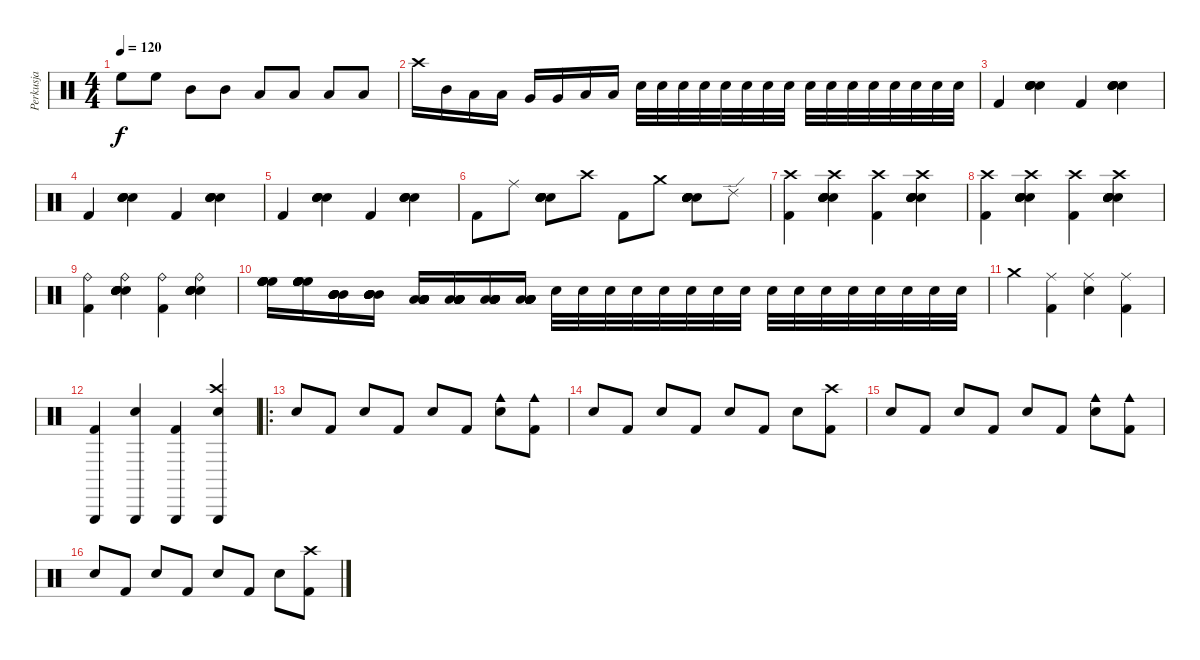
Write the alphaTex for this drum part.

\track ("Perkusja" "Perkusja") {instrument percussion}
\staff {score}
\articulation defaults
\ts (4 4)
\tempo 120
\clef neutral
\ks c "High Floor Tom (hit)".8{dy f} "High Floor Tom (hit)".8 "Mid Tom (hit)".8 "Mid Tom (hit)".8 "Low Tom (hit)".8 "Low Tom (hit)".8 "Low Floor Tom (hit)".8 "Low Floor Tom (hit)".8
|
"Crash high (hit)".16 "Mid Tom (hit)".16 "Low Tom (hit)".16 "Low Tom (hit)".16 "Very Low Tom (hit)".16 "Very Low Tom (hit)".16 "Low Floor Tom (hit)".16 "Low Floor Tom (hit)".16 "Snare (hit) 2".32 "Snare (hit) 2".32 "Snare (hit) 2".32 "Snare (hit) 2".32 "Snare (hit) 2".32 "Snare (hit) 2".32 "Snare (hit) 2".32 "Snare (hit) 2".32 "Snare (hit) 2".32 "Snare (hit) 2".32 "Snare (hit) 2".32 "Snare (hit) 2".32 "Snare (hit) 2".32 "Snare (hit) 2".32 "Snare (hit) 2".32 "Snare (hit) 2".32 |
"Kick (hit) 2".4 ("Snare (hit) 2" "Snare (hit) 2" "Snare (hit) 2" "Snare (hit) 2").4 "Kick (hit) 2".4 ("Snare (hit) 2" "Snare (hit) 2" "Snare (hit) 2" "Snare (hit) 2").4 |
"Kick (hit) 2".4 ("Snare (hit) 2" "Snare (hit) 2" "Snare (hit) 2" "Snare (hit) 2").4 "Kick (hit) 2".4 ("Snare (hit) 2" "Snare (hit) 2" "Snare (hit) 2" "Snare (hit) 2").4 |
"Kick (hit) 2".4 ("Snare (hit) 2" "Snare (hit) 2" "Snare (hit) 2" "Snare (hit) 2").4 "Kick (hit) 2".4 ("Snare (hit) 2" "Snare (hit) 2" "Snare (hit) 2" "Snare (hit) 2").4 |
"Kick (hit) 2".8 "Ride (middle)".8 ("Snare (hit) 2" "Snare (hit) 2" "Snare (hit) 2" "Snare (hit) 2" "Snare (hit) 2" "Snare (hit) 2").8 "Crash high (hit)".8 "Kick (hit) 2".8 "Crash medium (hit)".8 ("Snare (hit) 2" "Snare (hit) 2" "Snare (hit) 2" "Snare (hit) 2" "Snare (hit) 2" "Snare (hit) 2").8 "Ride (edge) 2".8 |
("Crash high (hit)" "Kick (hit) 2").4 ("Snare (hit) 2" "Snare (hit) 2" "Crash high (hit)" "Snare (hit) 2" "Snare (hit) 2" "Snare (hit) 2").4 ("Crash high (hit)" "Kick (hit) 2").4 ("Snare (hit) 2" "Snare (hit) 2" "Crash high (hit)" "Snare (hit) 2" "Snare (hit) 2" "Snare (hit) 2").4 |
("Crash high (hit)" "Kick (hit) 2").4 ("Snare (hit) 2" "Snare (hit) 2" "Crash high (hit)" "Snare (hit) 2" "Snare (hit) 2" "Snare (hit) 2").4 ("Crash high (hit)" "Kick (hit) 2").4 ("Snare (hit) 2" "Snare (hit) 2" "Crash high (hit)" "Snare (hit) 2" "Snare (hit) 2" "Snare (hit) 2").4 |
("Ride (bell)" "Kick (hit) 2").4 ("Snare (hit) 2" "Snare (hit) 2" "Ride (bell)" "Snare (hit) 2" "Snare (hit) 2" "Snare (hit) 2").4 ("Ride (bell)" "Kick (hit) 2").4 ("Snare (hit) 2" "Snare (hit) 2" "Ride (bell)" "Snare (hit) 2" "Snare (hit) 2" "Snare (hit) 2").4 |
("High Floor Tom (hit)" "High Floor Tom (hit)" "High Floor Tom (hit)" "High Floor Tom (hit)" "High Floor Tom (hit)" "High Floor Tom (hit)").16 ("High Floor Tom (hit)" "High Floor Tom (hit)" "High Floor Tom (hit)" "High Floor Tom (hit)" "High Floor Tom (hit)" "High Floor Tom (hit)").16 ("Mid Tom (hit)" "Mid Tom (hit)" "Mid Tom (hit)" "Mid Tom (hit)" "Mid Tom (hit)" "Mid Tom (hit)").16 ("Mid Tom (hit)" "Mid Tom (hit)" "Mid Tom (hit)" "Mid Tom (hit)" "Mid Tom (hit)" "Mid Tom (hit)").16 ("Low Tom (hit)" "Low Tom (hit)" "Low Tom (hit)" "Low Tom (hit)" "Low Tom (hit)" "Low Tom (hit)").16 ("Low Tom (hit)" "Low Tom (hit)" "Low Tom (hit)" "Low Tom (hit)" "Low Tom (hit)" "Low Tom (hit)").16 ("Low Floor Tom (hit)" "Low Floor Tom (hit)" "Low Floor Tom (hit)" "Low Floor Tom (hit)" "Low Floor Tom (hit)" "Low Floor Tom (hit)").16 ("Low Floor Tom (hit)" "Low Floor Tom (hit)" "Low Floor Tom (hit)" "Low Floor Tom (hit)" "Low Floor Tom (hit)" "Low Floor Tom (hit)").16 "Snare (hit) 2".32 "Snare (hit) 2".32 "Snare (hit) 2".32 "Snare (hit) 2".32 "Snare (hit) 2".32 "Snare (hit) 2".32 "Snare (hit) 2".32 "Snare (hit) 2".32 "Snare (hit) 2".32 "Snare (hit) 2".32 "Snare (hit) 2".32 "Snare (hit) 2".32 "Snare (hit) 2".32 "Snare (hit) 2".32 "Snare (hit) 2".32 "Snare (hit) 2".32 |
"Crash medium (hit)".4 ("Ride (middle)" "Kick (hit) 2").4 ("Ride (middle)" "Snare (hit) 2").4 ("Ride (middle)" "Kick (hit) 2").4 |
("Triangle (hit)" "Kick (hit) 2").4 ("Triangle (hit)" "Snare (hit) 2").4 ("Triangle (hit)" "Kick (hit) 2").4 ("Crash high (hit)" "Triangle (hit)" "Snare (hit) 2").4 |
\ro "Snare (hit) 2".8 "Kick (hit) 2".8 "Snare (hit) 2".8 "Kick (hit) 2".8 "Snare (hit) 2".8 "Kick (hit) 2".8
("Cowbell medium (hit)" "Snare (hit) 2").8 ("Cowbell medium (hit)" "Kick (hit) 2").8 |
"Snare (hit) 2".8 "Kick (hit) 2".8 "Snare (hit) 2".8 "Kick (hit) 2".8 "Snare (hit) 2".8 "Kick (hit) 2".8 "Snare (hit) 2".8 ("Crash high (hit)" "Kick (hit) 2").8 |
"Snare (hit) 2".8 "Kick (hit) 2".8 "Snare (hit) 2".8 "Kick (hit) 2".8 "Snare (hit) 2".8 "Kick (hit) 2".8 ("Cowbell medium (hit)" "Snare (hit) 2").8 ("Cowbell medium (hit)" "Kick (hit) 2").8 |
"Snare (hit) 2".8 "Kick (hit) 2".8 "Snare (hit) 2".8 "Kick (hit) 2".8 "Snare (hit) 2".8 "Kick (hit) 2".8 "Snare (hit) 2".8 ("Crash high (hit)" "Kick (hit) 2").8
